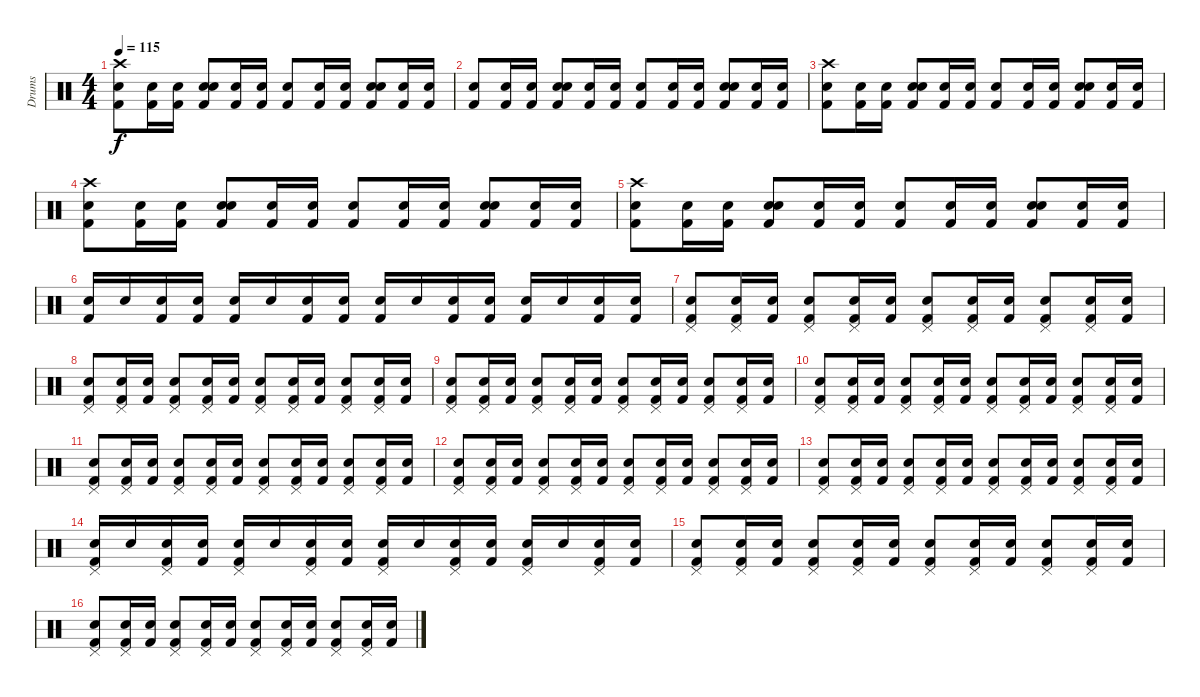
\track ("Drums" "Drums") {instrument percussion}
\staff {score}
\articulation defaults
\ts (4 4)
\tempo 115
\clef neutral
\ks c
("Crash high (hit)" "Kick (hit) 2" "Snare (hit) 2").8{dy f} ("Kick (hit) 2" "Snare (hit) 2").16 ("Kick (hit) 2" "Snare (hit) 2").16 ("Electric Snare (hit)" "Kick (hit) 2" "Snare (hit) 2").8 ("Kick (hit) 2" "Snare (hit) 2").16 ("Kick (hit) 2" "Snare (hit) 2").16 ("Kick (hit) 2" "Snare (hit) 2").8 ("Kick (hit) 2" "Snare (hit) 2").16 ("Kick (hit) 2" "Snare (hit) 2").16 ("Electric Snare (hit)" "Kick (hit) 2" "Snare (hit) 2").8 ("Kick (hit) 2" "Snare (hit) 2").16 ("Kick (hit) 2" "Snare (hit) 2").16 |
("Kick (hit) 2" "Snare (hit) 2").8 ("Kick (hit) 2" "Snare (hit) 2").16 ("Kick (hit) 2" "Snare (hit) 2").16 ("Electric Snare (hit)" "Kick (hit) 2" "Snare (hit) 2").8 ("Kick (hit) 2" "Snare (hit) 2").16 ("Kick (hit) 2" "Snare (hit) 2").16 ("Kick (hit) 2" "Snare (hit) 2").8 ("Kick (hit) 2" "Snare (hit) 2").16 ("Kick (hit) 2" "Snare (hit) 2").16 ("Electric Snare (hit)" "Kick (hit) 2" "Snare (hit) 2").8 ("Kick (hit) 2" "Snare (hit) 2").16 ("Kick (hit) 2" "Snare (hit) 2").16 |
("Crash high (hit)" "Kick (hit) 2" "Snare (hit) 2").8 ("Kick (hit) 2" "Snare (hit) 2").16 ("Kick (hit) 2" "Snare (hit) 2").16 ("Electric Snare (hit)" "Kick (hit) 2" "Snare (hit) 2").8 ("Kick (hit) 2" "Snare (hit) 2").16 ("Kick (hit) 2" "Snare (hit) 2").16 ("Kick (hit) 2" "Snare (hit) 2").8 ("Kick (hit) 2" "Snare (hit) 2").16 ("Kick (hit) 2" "Snare (hit) 2").16 ("Electric Snare (hit)" "Kick (hit) 2" "Snare (hit) 2").8 ("Kick (hit) 2" "Snare (hit) 2").16 ("Kick (hit) 2" "Snare (hit) 2").16 |
("Crash high (hit)" "Kick (hit) 2" "Snare (hit) 2").8 ("Kick (hit) 2" "Snare (hit) 2").16 ("Kick (hit) 2" "Snare (hit) 2").16 ("Electric Snare (hit)" "Kick (hit) 2" "Snare (hit) 2").8 ("Kick (hit) 2" "Snare (hit) 2").16 ("Kick (hit) 2" "Snare (hit) 2").16 ("Kick (hit) 2" "Snare (hit) 2").8 ("Kick (hit) 2" "Snare (hit) 2").16 ("Kick (hit) 2" "Snare (hit) 2").16 ("Electric Snare (hit)" "Kick (hit) 2" "Snare (hit) 2").8 ("Kick (hit) 2" "Snare (hit) 2").16 ("Kick (hit) 2" "Snare (hit) 2").16 |
("Crash high (hit)" "Kick (hit) 2" "Snare (hit) 2").8 ("Kick (hit) 2" "Snare (hit) 2").16 ("Kick (hit) 2" "Snare (hit) 2").16 ("Electric Snare (hit)" "Kick (hit) 2" "Snare (hit) 2").8 ("Kick (hit) 2" "Snare (hit) 2").16 ("Kick (hit) 2" "Snare (hit) 2").16 ("Kick (hit) 2" "Snare (hit) 2").8 ("Kick (hit) 2" "Snare (hit) 2").16 ("Kick (hit) 2" "Snare (hit) 2").16 ("Electric Snare (hit)" "Kick (hit) 2" "Snare (hit) 2").8 ("Kick (hit) 2" "Snare (hit) 2").16 ("Kick (hit) 2" "Snare (hit) 2").16 |
("Kick (hit) 2" "Snare (hit) 2").16 "Snare (hit) 2".16 ("Kick (hit) 2" "Snare (hit) 2").16 ("Kick (hit) 2" "Snare (hit) 2").16 ("Kick (hit) 2" "Snare (hit) 2").16 "Snare (hit) 2".16 ("Kick (hit) 2" "Snare (hit) 2").16 ("Kick (hit) 2" "Snare (hit) 2").16 ("Kick (hit) 2" "Electric Snare (hit)").16 "Electric Snare (hit)".16 ("Kick (hit) 2" "Electric Snare (hit)").16 ("Kick (hit) 2" "Electric Snare (hit)").16 ("Kick (hit) 2" "Electric Snare (hit)").16 "Electric Snare (hit)".16 ("Kick (hit) 2" "Electric Snare (hit)").16 ("Kick (hit) 2" "Electric Snare (hit)").16 |
("Pedal Hi-Hat (hit)" "Kick (hit) 2" "Snare (hit) 2").8 ("Pedal Hi-Hat (hit)" "Kick (hit) 2" "Snare (hit) 2").16 ("Kick (hit) 2" "Snare (hit) 2").16 ("Pedal Hi-Hat (hit)" "Electric Snare (hit)" "Kick (hit) 2").8 ("Pedal Hi-Hat (hit)" "Kick (hit) 2" "Snare (hit) 2").16 ("Kick (hit) 2" "Snare (hit) 2").16 ("Pedal Hi-Hat (hit)" "Kick (hit) 2" "Snare (hit) 2").8 ("Pedal Hi-Hat (hit)" "Kick (hit) 2" "Snare (hit) 2").16 ("Kick (hit) 2" "Snare (hit) 2").16 ("Pedal Hi-Hat (hit)" "Electric Snare (hit)" "Kick (hit) 2").8 ("Pedal Hi-Hat (hit)" "Kick (hit) 2" "Snare (hit) 2").16 ("Kick (hit) 2" "Snare (hit) 2").16 |
("Pedal Hi-Hat (hit)" "Kick (hit) 2" "Snare (hit) 2").8 ("Pedal Hi-Hat (hit)" "Kick (hit) 2" "Snare (hit) 2").16 ("Kick (hit) 2" "Snare (hit) 2").16 ("Pedal Hi-Hat (hit)" "Electric Snare (hit)" "Kick (hit) 2").8 ("Pedal Hi-Hat (hit)" "Kick (hit) 2" "Snare (hit) 2").16 ("Kick (hit) 2" "Snare (hit) 2").16 ("Pedal Hi-Hat (hit)" "Kick (hit) 2" "Snare (hit) 2").8 ("Pedal Hi-Hat (hit)" "Kick (hit) 2" "Snare (hit) 2").16 ("Kick (hit) 2" "Snare (hit) 2").16 ("Pedal Hi-Hat (hit)" "Electric Snare (hit)" "Kick (hit) 2").8 ("Pedal Hi-Hat (hit)" "Kick (hit) 2" "Snare (hit) 2").16 ("Kick (hit) 2" "Snare (hit) 2").16 |
("Pedal Hi-Hat (hit)" "Kick (hit) 2" "Snare (hit) 2").8 ("Pedal Hi-Hat (hit)" "Kick (hit) 2" "Snare (hit) 2").16 ("Kick (hit) 2" "Snare (hit) 2").16 ("Pedal Hi-Hat (hit)" "Electric Snare (hit)" "Kick (hit) 2").8 ("Pedal Hi-Hat (hit)" "Kick (hit) 2" "Snare (hit) 2").16 ("Kick (hit) 2" "Snare (hit) 2").16 ("Pedal Hi-Hat (hit)" "Kick (hit) 2" "Snare (hit) 2").8 ("Pedal Hi-Hat (hit)" "Kick (hit) 2" "Snare (hit) 2").16 ("Kick (hit) 2" "Snare (hit) 2").16 ("Pedal Hi-Hat (hit)" "Electric Snare (hit)" "Kick (hit) 2").8 ("Pedal Hi-Hat (hit)" "Kick (hit) 2" "Snare (hit) 2").16 ("Kick (hit) 2" "Snare (hit) 2").16 |
("Pedal Hi-Hat (hit)" "Kick (hit) 2" "Snare (hit) 2").8 ("Pedal Hi-Hat (hit)" "Kick (hit) 2" "Snare (hit) 2").16 ("Kick (hit) 2" "Snare (hit) 2").16 ("Pedal Hi-Hat (hit)" "Electric Snare (hit)" "Kick (hit) 2").8 ("Pedal Hi-Hat (hit)" "Kick (hit) 2" "Snare (hit) 2").16 ("Kick (hit) 2" "Snare (hit) 2").16 ("Pedal Hi-Hat (hit)" "Kick (hit) 2" "Snare (hit) 2").8 ("Pedal Hi-Hat (hit)" "Kick (hit) 2" "Snare (hit) 2").16 ("Kick (hit) 2" "Snare (hit) 2").16 ("Pedal Hi-Hat (hit)" "Electric Snare (hit)" "Kick (hit) 2").8 ("Pedal Hi-Hat (hit)" "Kick (hit) 2" "Snare (hit) 2").16 ("Kick (hit) 2" "Snare (hit) 2").16 |
("Pedal Hi-Hat (hit)" "Kick (hit) 2" "Snare (hit) 2").8 ("Pedal Hi-Hat (hit)" "Kick (hit) 2" "Snare (hit) 2").16 ("Kick (hit) 2" "Snare (hit) 2").16 ("Pedal Hi-Hat (hit)" "Electric Snare (hit)" "Kick (hit) 2").8 ("Pedal Hi-Hat (hit)" "Kick (hit) 2" "Snare (hit) 2").16 ("Kick (hit) 2" "Snare (hit) 2").16 ("Pedal Hi-Hat (hit)" "Kick (hit) 2" "Snare (hit) 2").8 ("Pedal Hi-Hat (hit)" "Kick (hit) 2" "Snare (hit) 2").16 ("Kick (hit) 2" "Snare (hit) 2").16 ("Pedal Hi-Hat (hit)" "Electric Snare (hit)" "Kick (hit) 2").8 ("Pedal Hi-Hat (hit)" "Kick (hit) 2" "Snare (hit) 2").16 ("Kick (hit) 2" "Snare (hit) 2").16 |
("Pedal Hi-Hat (hit)" "Kick (hit) 2" "Snare (hit) 2").8 ("Pedal Hi-Hat (hit)" "Kick (hit) 2" "Snare (hit) 2").16 ("Kick (hit) 2" "Snare (hit) 2").16 ("Pedal Hi-Hat (hit)" "Electric Snare (hit)" "Kick (hit) 2").8 ("Pedal Hi-Hat (hit)" "Kick (hit) 2" "Snare (hit) 2").16 ("Kick (hit) 2" "Snare (hit) 2").16 ("Pedal Hi-Hat (hit)" "Kick (hit) 2" "Snare (hit) 2").8 ("Pedal Hi-Hat (hit)" "Kick (hit) 2" "Snare (hit) 2").16 ("Kick (hit) 2" "Snare (hit) 2").16 ("Pedal Hi-Hat (hit)" "Electric Snare (hit)" "Kick (hit) 2").8 ("Pedal Hi-Hat (hit)" "Kick (hit) 2" "Snare (hit) 2").16 ("Kick (hit) 2" "Snare (hit) 2").16 |
("Pedal Hi-Hat (hit)" "Kick (hit) 2" "Snare (hit) 2").8 ("Pedal Hi-Hat (hit)" "Kick (hit) 2" "Snare (hit) 2").16 ("Kick (hit) 2" "Snare (hit) 2").16 ("Pedal Hi-Hat (hit)" "Electric Snare (hit)" "Kick (hit) 2").8 ("Pedal Hi-Hat (hit)" "Kick (hit) 2" "Snare (hit) 2").16 ("Kick (hit) 2" "Snare (hit) 2").16 ("Pedal Hi-Hat (hit)" "Kick (hit) 2" "Snare (hit) 2").8 ("Pedal Hi-Hat (hit)" "Kick (hit) 2" "Snare (hit) 2").16 ("Kick (hit) 2" "Snare (hit) 2").16 ("Pedal Hi-Hat (hit)" "Electric Snare (hit)" "Kick (hit) 2").8 ("Pedal Hi-Hat (hit)" "Kick (hit) 2" "Snare (hit) 2").16 ("Kick (hit) 2" "Snare (hit) 2").16 |
("Pedal Hi-Hat (hit)" "Kick (hit) 2" "Snare (hit) 2").16 "Snare (hit) 2".16 ("Pedal Hi-Hat (hit)" "Kick (hit) 2" "Snare (hit) 2").16 ("Kick (hit) 2" "Snare (hit) 2").16 ("Pedal Hi-Hat (hit)" "Kick (hit) 2" "Snare (hit) 2").16 "Snare (hit) 2".16 ("Pedal Hi-Hat (hit)" "Kick (hit) 2" "Snare (hit) 2").16 ("Kick (hit) 2" "Snare (hit) 2").16 ("Pedal Hi-Hat (hit)" "Kick (hit) 2" "Electric Snare (hit)").16 "Electric Snare (hit)".16 ("Pedal Hi-Hat (hit)" "Kick (hit) 2" "Electric Snare (hit)").16 ("Kick (hit) 2" "Electric Snare (hit)").16 ("Pedal Hi-Hat (hit)" "Kick (hit) 2" "Electric Snare (hit)").16 "Electric Snare (hit)".16 ("Pedal Hi-Hat (hit)" "Kick (hit) 2" "Electric Snare (hit)").16 ("Kick (hit) 2" "Electric Snare (hit)").16 |
("Pedal Hi-Hat (hit)" "Kick (hit) 2" "Snare (hit) 2").8 ("Pedal Hi-Hat (hit)" "Kick (hit) 2" "Snare (hit) 2").16 ("Kick (hit) 2" "Snare (hit) 2").16 ("Pedal Hi-Hat (hit)" "Electric Snare (hit)" "Kick (hit) 2").8 ("Pedal Hi-Hat (hit)" "Kick (hit) 2" "Snare (hit) 2").16 ("Kick (hit) 2" "Snare (hit) 2").16 ("Pedal Hi-Hat (hit)" "Kick (hit) 2" "Snare (hit) 2").8 ("Pedal Hi-Hat (hit)" "Kick (hit) 2" "Snare (hit) 2").16 ("Kick (hit) 2" "Snare (hit) 2").16 ("Pedal Hi-Hat (hit)" "Electric Snare (hit)" "Kick (hit) 2").8 ("Pedal Hi-Hat (hit)" "Kick (hit) 2" "Snare (hit) 2").16 ("Kick (hit) 2" "Snare (hit) 2").16 |
("Pedal Hi-Hat (hit)" "Kick (hit) 2" "Snare (hit) 2").8 ("Pedal Hi-Hat (hit)" "Kick (hit) 2" "Snare (hit) 2").16 ("Kick (hit) 2" "Snare (hit) 2").16 ("Pedal Hi-Hat (hit)" "Electric Snare (hit)" "Kick (hit) 2").8 ("Pedal Hi-Hat (hit)" "Kick (hit) 2" "Snare (hit) 2").16 ("Kick (hit) 2" "Snare (hit) 2").16 ("Pedal Hi-Hat (hit)" "Kick (hit) 2" "Snare (hit) 2").8 ("Pedal Hi-Hat (hit)" "Kick (hit) 2" "Snare (hit) 2").16 ("Kick (hit) 2" "Snare (hit) 2").16 ("Pedal Hi-Hat (hit)" "Electric Snare (hit)" "Kick (hit) 2").8 ("Pedal Hi-Hat (hit)" "Kick (hit) 2" "Snare (hit) 2").16 ("Kick (hit) 2" "Snare (hit) 2").16
